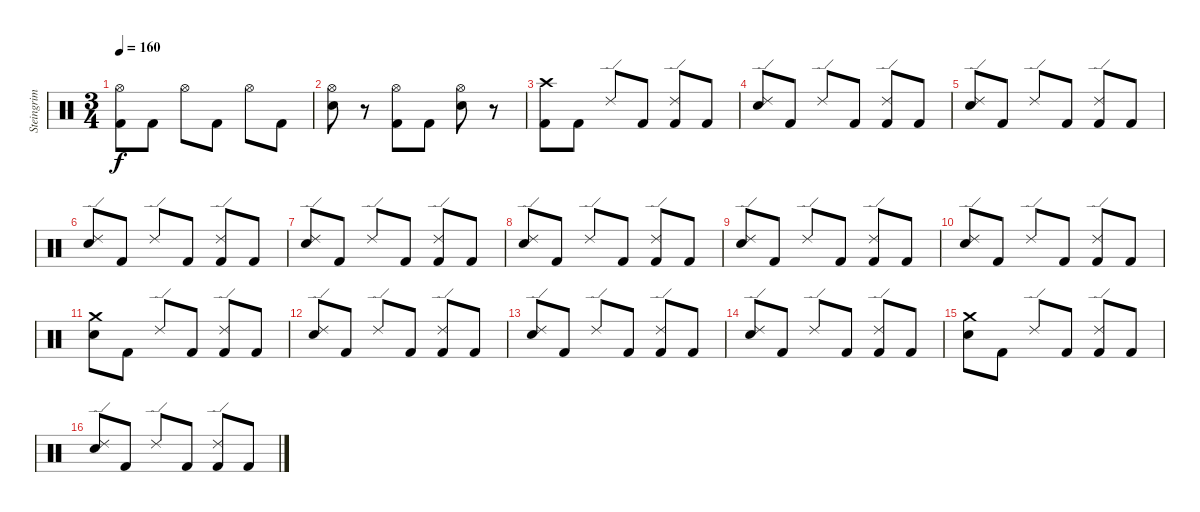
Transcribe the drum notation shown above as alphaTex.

\track ("Steingrim Trommur" "Steingrim ") {instrument percussion}
\staff {score}
\articulation defaults
\ts (3 4)
\tempo 160
\clef neutral
\ks c
("Hi-Hat (open)" "Kick (hit) 2").8{dy f} "Kick (hit) 2".8 "Hi-Hat (open)".8 "Kick (hit) 2".8 "Hi-Hat (open)".8 "Kick (hit) 2".8 |
("Hi-Hat (open)" "Electric Snare (hit)").8 r.8 ("Hi-Hat (open)" "Kick (hit) 2").8 "Kick (hit) 2".8 ("Hi-Hat (open)" "Electric Snare (hit)").8 r.8 |
("Crash high (hit)" "Kick (hit) 2").8 "Kick (hit) 2".8 "Ride (edge) 2".8 "Kick (hit) 2".8 ("Ride (edge) 2" "Kick (hit) 2").8 "Kick (hit) 2".8 |
("Ride (edge) 2" "Electric Snare (hit)").8 "Kick (hit) 2".8 "Ride (edge) 2".8 "Kick (hit) 2".8 ("Ride (edge) 2" "Kick (hit) 2").8 "Kick (hit) 2".8 |
("Ride (edge) 2" "Electric Snare (hit)").8 "Kick (hit) 2".8 "Ride (edge) 2".8 "Kick (hit) 2".8 ("Ride (edge) 2" "Kick (hit) 2").8 "Kick (hit) 2".8 |
("Ride (edge) 2" "Electric Snare (hit)").8 "Kick (hit) 2".8 "Ride (edge) 2".8 "Kick (hit) 2".8 ("Ride (edge) 2" "Kick (hit) 2").8 "Kick (hit) 2".8 |
("Ride (edge) 2" "Electric Snare (hit)").8 "Kick (hit) 2".8 "Ride (edge) 2".8 "Kick (hit) 2".8 ("Ride (edge) 2" "Kick (hit) 2").8 "Kick (hit) 2".8 |
("Ride (edge) 2" "Electric Snare (hit)").8 "Kick (hit) 2".8 "Ride (edge) 2".8 "Kick (hit) 2".8 ("Ride (edge) 2" "Kick (hit) 2").8 "Kick (hit) 2".8 |
("Ride (edge) 2" "Electric Snare (hit)").8 "Kick (hit) 2".8 "Ride (edge) 2".8 "Kick (hit) 2".8 ("Ride (edge) 2" "Kick (hit) 2").8 "Kick (hit) 2".8 |
("Ride (edge) 2" "Electric Snare (hit)").8 "Kick (hit) 2".8 "Ride (edge) 2".8 "Kick (hit) 2".8 ("Ride (edge) 2" "Kick (hit) 2").8 "Kick (hit) 2".8 |
("Crash medium (hit)" "Electric Snare (hit)").8 "Kick (hit) 2".8 "Ride (edge) 2".8 "Kick (hit) 2".8 ("Ride (edge) 2" "Kick (hit) 2").8 "Kick (hit) 2".8 |
("Ride (edge) 2" "Electric Snare (hit)").8 "Kick (hit) 2".8 "Ride (edge) 2".8 "Kick (hit) 2".8 ("Ride (edge) 2" "Kick (hit) 2").8 "Kick (hit) 2".8 |
("Ride (edge) 2" "Electric Snare (hit)").8 "Kick (hit) 2".8 "Ride (edge) 2".8 "Kick (hit) 2".8 ("Ride (edge) 2" "Kick (hit) 2").8 "Kick (hit) 2".8 |
("Ride (edge) 2" "Electric Snare (hit)").8 "Kick (hit) 2".8 "Ride (edge) 2".8 "Kick (hit) 2".8 ("Ride (edge) 2" "Kick (hit) 2").8 "Kick (hit) 2".8 |
("Crash medium (hit)" "Electric Snare (hit)").8 "Kick (hit) 2".8 "Ride (edge) 2".8 "Kick (hit) 2".8 ("Ride (edge) 2" "Kick (hit) 2").8 "Kick (hit) 2".8 |
("Ride (edge) 2" "Electric Snare (hit)").8 "Kick (hit) 2".8 "Ride (edge) 2".8 "Kick (hit) 2".8 ("Ride (edge) 2" "Kick (hit) 2").8 "Kick (hit) 2".8
